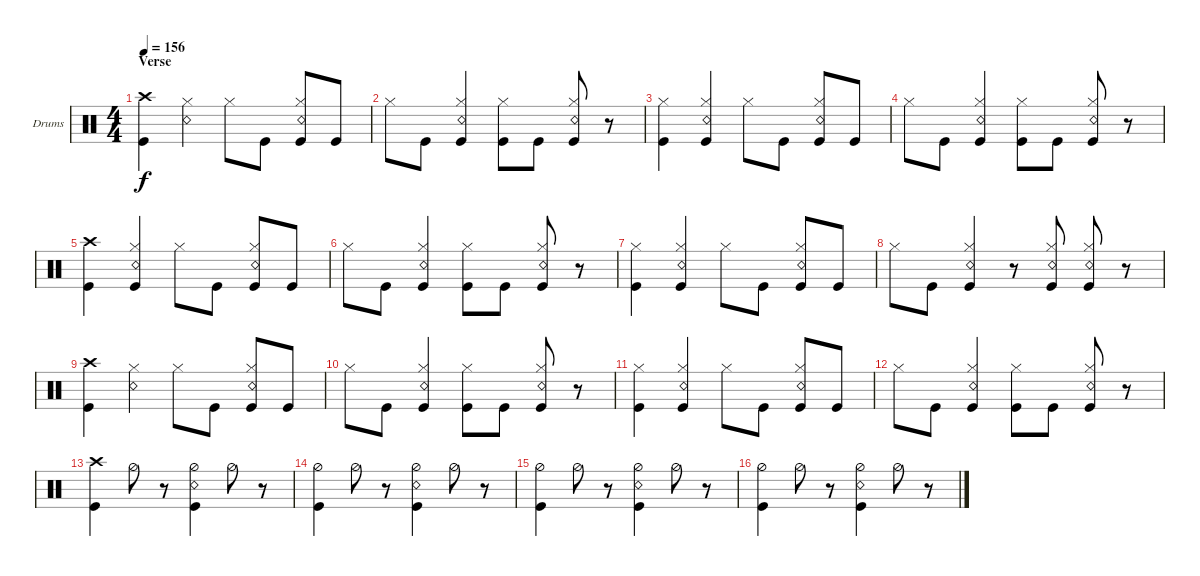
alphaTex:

\bracketExtendMode groupsimilarinstruments
\firstSystemTrackNameOrientation horizontal
\otherSystemsTrackNameOrientation horizontal
\track ("Drums" "Drums") {instrument percussion}
\staff {score}
\articulation defaults
\ts (4 4)
\section ("" "Verse")
\tempo 156
\clef neutral
\ks c
("Kick (hit)" "Crash high (hit)").4{dy f} ("Hi-Hat (closed)" "Snare (rim shot)").4 "Hi-Hat (closed)".8 "Kick (hit)".8 ("Hi-Hat (closed)" "Snare (rim shot)" "Kick (hit)").8 "Kick (hit)".8 |
"Hi-Hat (closed)".8 "Kick (hit)".8 ("Hi-Hat (closed)" "Snare (rim shot)" "Kick (hit)").4 ("Hi-Hat (closed)" "Kick (hit)").8 "Kick (hit)".8 ("Hi-Hat (closed)" "Snare (rim shot)" "Kick (hit)").8 r.8 |
("Kick (hit)" "Hi-Hat (closed)").4 ("Hi-Hat (closed)" "Snare (rim shot)" "Kick (hit)").4 "Hi-Hat (closed)".8 "Kick (hit)".8 ("Hi-Hat (closed)" "Snare (rim shot)" "Kick (hit)").8 "Kick (hit)".8 |
"Hi-Hat (closed)".8 "Kick (hit)".8 ("Hi-Hat (closed)" "Snare (rim shot)" "Kick (hit)").4 ("Hi-Hat (closed)" "Kick (hit)").8 "Kick (hit)".8 ("Hi-Hat (closed)" "Snare (rim shot)" "Kick (hit)").8 r.8 |
("Kick (hit)" "Crash high (hit)").4 ("Hi-Hat (closed)" "Snare (rim shot)" "Kick (hit)").4 "Hi-Hat (closed)".8 "Kick (hit)".8 ("Hi-Hat (closed)" "Snare (rim shot)" "Kick (hit)").8 "Kick (hit)".8 |
"Hi-Hat (closed)".8 "Kick (hit)".8 ("Hi-Hat (closed)" "Snare (rim shot)" "Kick (hit)").4 ("Hi-Hat (closed)" "Kick (hit)").8 "Kick (hit)".8 ("Hi-Hat (closed)" "Snare (rim shot)" "Kick (hit)").8 r.8 |
("Kick (hit)" "Hi-Hat (closed)").4 ("Hi-Hat (closed)" "Snare (rim shot)" "Kick (hit)").4 "Hi-Hat (closed)".8 "Kick (hit)".8 ("Hi-Hat (closed)" "Snare (rim shot)" "Kick (hit)").8 "Kick (hit)".8 |
"Hi-Hat (closed)".8 "Kick (hit)".8 ("Hi-Hat (closed)" "Snare (rim shot)" "Kick (hit)").4 r.8 ("Hi-Hat (closed)" "Kick (hit)" "Snare (rim shot)").8 ("Hi-Hat (closed)" "Kick (hit)" "Snare (rim shot)").8 r.8 |
("Kick (hit)" "Crash high (hit)").4 ("Hi-Hat (closed)" "Snare (rim shot)").4 "Hi-Hat (closed)".8 "Kick (hit)".8 ("Hi-Hat (closed)" "Snare (rim shot)" "Kick (hit)").8 "Kick (hit)".8 |
"Hi-Hat (closed)".8 "Kick (hit)".8 ("Hi-Hat (closed)" "Snare (rim shot)" "Kick (hit)").4 ("Hi-Hat (closed)" "Kick (hit)").8 "Kick (hit)".8 ("Hi-Hat (closed)" "Snare (rim shot)" "Kick (hit)").8 r.8 |
("Kick (hit)" "Hi-Hat (closed)").4 ("Hi-Hat (closed)" "Snare (rim shot)" "Kick (hit)").4 "Hi-Hat (closed)".8 "Kick (hit)".8 ("Hi-Hat (closed)" "Snare (rim shot)" "Kick (hit)").8 "Kick (hit)".8 |
"Hi-Hat (closed)".8 "Kick (hit)".8 ("Hi-Hat (closed)" "Snare (rim shot)" "Kick (hit)").4 ("Hi-Hat (closed)" "Kick (hit)").8 "Kick (hit)".8 ("Hi-Hat (closed)" "Snare (rim shot)" "Kick (hit)").8 r.8 |
("Kick (hit)" "Crash high (hit)").4 "Hi-Hat (half)".8 r.8 ("Hi-Hat (half)" "Snare (rim shot)" "Kick (hit)").4 "Hi-Hat (half)".8 r.8 |
("Kick (hit)" "Hi-Hat (half)").4 "Hi-Hat (half)".8 r.8 ("Hi-Hat (half)" "Snare (rim shot)" "Kick (hit)").4 "Hi-Hat (half)".8 r.8 |
("Kick (hit)" "Hi-Hat (half)").4 "Hi-Hat (half)".8 r.8 ("Hi-Hat (half)" "Snare (rim shot)" "Kick (hit)").4 "Hi-Hat (half)".8 r.8 |
("Kick (hit)" "Hi-Hat (half)").4 "Hi-Hat (half)".8 r.8 ("Hi-Hat (half)" "Snare (rim shot)" "Kick (hit)").4 "Hi-Hat (half)".8 r.8
